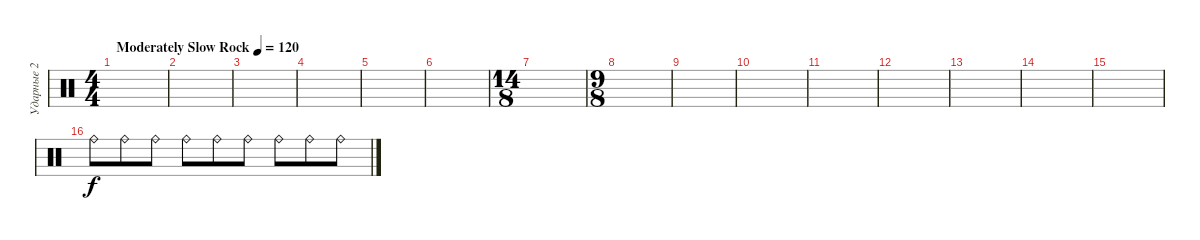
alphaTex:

\track ("Ударные 2" "Ударные 2") {instrument percussion}
\staff {score}
\articulation defaults
\ts (4 4)
\tempo (120 "Moderately Slow Rock")
\clef neutral
\ks c
|
|
|
|
|
|
\ts (14 8)
|
\ts (9 8)
|
|
|
|
|
|
|
|
"Ride (bell)".8 "Ride (bell)".8 "Ride (bell)".8 "Ride (bell)".8 "Ride (bell)".8 "Ride (bell)".8 "Ride (bell)".8 "Ride (bell)".8 "Ride (bell)".8
